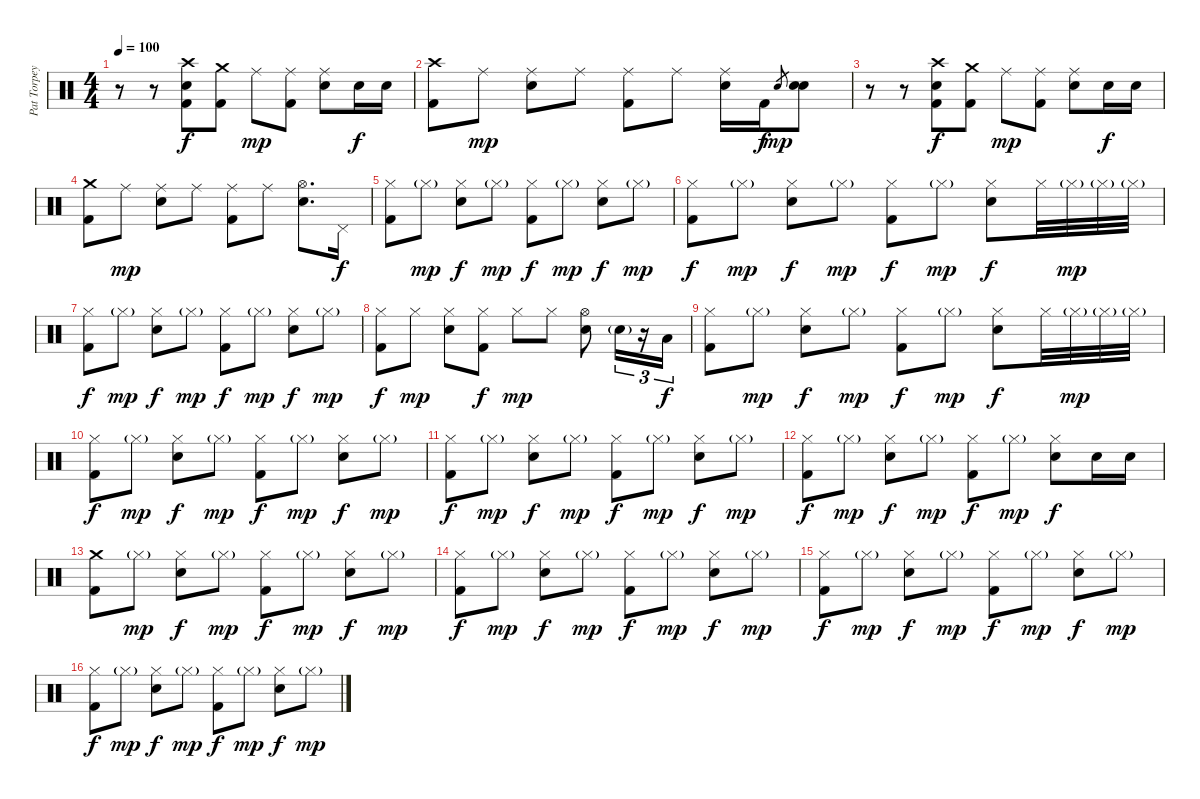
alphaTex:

\track ("Pat Torpey" "Pat Torpey") {instrument percussion}
\staff {score}
\articulation defaults
\ts (4 4)
\tempo 100
\clef neutral
\ks c
r.8{dy mp} r.8 ("Crash high (hit)" "Electric Snare (hit)" "Kick (hit) 2").8{dy f} ("Crash medium (hit)" "Kick (hit) 2").8 "Ride (middle)".8{dy mp} ("Ride (middle)" "Kick (hit) 2").8 ("Ride (middle)" "Electric Snare (hit)").8 "Electric Snare (hit)".16{dy f} "Electric Snare (hit)".16 |
("Crash high (hit)" "Kick (hit) 2").8 "Ride (middle)".8{dy mp} ("Ride (middle)" "Electric Snare (hit)").8 "Ride (middle)".8 ("Ride (middle)" "Kick (hit) 2").8 "Ride (middle)".8 ("Ride (middle)" "Electric Snare (hit)").16 "Kick (hit) 2".16{dy f} "Electric Snare (hit)".8{gr dy mp} ("Electric Snare (hit)" "Electric Snare (hit)").8 |
r.8 r.8 ("Crash high (hit)" "Electric Snare (hit)" "Kick (hit) 2").8{dy f} ("Crash medium (hit)" "Kick (hit) 2").8 "Ride (middle)".8{dy mp} ("Ride (middle)" "Kick (hit) 2").8 ("Ride (middle)" "Electric Snare (hit)").8 "Electric Snare (hit)".16{dy f} "Electric Snare (hit)".16 |
("Crash medium (hit)" "Kick (hit) 2").8 "Ride (middle)".8{dy mp} ("Ride (middle)" "Electric Snare (hit)").8 "Ride (middle)".8 ("Ride (middle)" "Kick (hit) 2").8 "Ride (middle)".8 ("Hi-Hat (open)" "Electric Snare (hit)").8{d} "Pedal Hi-Hat (hit)".16{dy f} |
("Hi-Hat (closed)" "Kick (hit) 2").8 "Hi-Hat (closed)"{g}.8{dy mp} ("Hi-Hat (closed)" "Electric Snare (hit)").8{dy f} "Hi-Hat (closed)"{g}.8{dy mp} ("Hi-Hat (closed)" "Kick (hit) 2").8{dy f} "Hi-Hat (closed)"{g}.8{dy mp} ("Hi-Hat (closed)" "Electric Snare (hit)").8{dy f} "Hi-Hat (closed)"{g}.8{dy mp} |
("Hi-Hat (closed)" "Kick (hit) 2").8{dy f} "Hi-Hat (closed)"{g}.8{dy mp} ("Hi-Hat (closed)" "Electric Snare (hit)").8{dy f} "Hi-Hat (closed)"{g}.8{dy mp} ("Hi-Hat (closed)" "Kick (hit) 2").8{dy f} "Hi-Hat (closed)"{g}.8{dy mp} ("Hi-Hat (closed)" "Electric Snare (hit)").8{dy f} "Hi-Hat (closed)".32 "Hi-Hat (closed)"{g}.32{dy mp} "Hi-Hat (closed)"{g}.32 "Hi-Hat (closed)"{g}.32 |
("Hi-Hat (closed)" "Kick (hit) 2").8{dy f} "Hi-Hat (closed)"{g}.8{dy mp} ("Hi-Hat (closed)" "Electric Snare (hit)").8{dy f} "Hi-Hat (closed)"{g}.8{dy mp} ("Hi-Hat (closed)" "Kick (hit) 2").8{dy f} "Hi-Hat (closed)"{g}.8{dy mp} ("Hi-Hat (closed)" "Electric Snare (hit)").8{dy f} "Hi-Hat (closed)"{g}.8{dy mp} |
("Hi-Hat (closed)" "Kick (hit) 2").8{dy f} "Hi-Hat (closed)".8{dy mp} ("Hi-Hat (closed)" "Electric Snare (hit)").8 ("Hi-Hat (closed)" "Kick (hit) 2").8{dy f} "Hi-Hat (closed)".8{dy mp} "Hi-Hat (closed)".8 ("Hi-Hat (open)" "Electric Snare (hit)").8 "Electric Snare (hit)"{g}.16{tu (3 2)} r.16{tu (3 2)} "Low Tom (hit)".16{tu (3 2) dy f} |
("Hi-Hat (closed)" "Kick (hit) 2").8 "Hi-Hat (closed)"{g}.8{dy mp} ("Hi-Hat (closed)" "Electric Snare (hit)").8{dy f} "Hi-Hat (closed)"{g}.8{dy mp} ("Hi-Hat (closed)" "Kick (hit) 2").8{dy f} "Hi-Hat (closed)"{g}.8{dy mp} ("Hi-Hat (closed)" "Electric Snare (hit)").8{dy f} "Hi-Hat (closed)".32 "Hi-Hat (closed)"{g}.32{dy mp} "Hi-Hat (closed)"{g}.32 "Hi-Hat (closed)"{g}.32 |
("Hi-Hat (closed)" "Kick (hit) 2").8{dy f} "Hi-Hat (closed)"{g}.8{dy mp} ("Hi-Hat (closed)" "Electric Snare (hit)").8{dy f} "Hi-Hat (closed)"{g}.8{dy mp} ("Hi-Hat (closed)" "Kick (hit) 2").8{dy f} "Hi-Hat (closed)"{g}.8{dy mp} ("Hi-Hat (closed)" "Electric Snare (hit)").8{dy f} "Hi-Hat (closed)"{g}.8{dy mp} |
("Hi-Hat (closed)" "Kick (hit) 2").8{dy f} "Hi-Hat (closed)"{g}.8{dy mp} ("Hi-Hat (closed)" "Electric Snare (hit)").8{dy f} "Hi-Hat (closed)"{g}.8{dy mp} ("Hi-Hat (closed)" "Kick (hit) 2").8{dy f} "Hi-Hat (closed)"{g}.8{dy mp} ("Hi-Hat (closed)" "Electric Snare (hit)").8{dy f} "Hi-Hat (closed)"{g}.8{dy mp} |
("Hi-Hat (closed)" "Kick (hit) 2").8{dy f} "Hi-Hat (closed)"{g}.8{dy mp} ("Hi-Hat (closed)" "Electric Snare (hit)").8{dy f} "Hi-Hat (closed)"{g}.8{dy mp} ("Hi-Hat (closed)" "Kick (hit) 2").8{dy f} "Hi-Hat (closed)"{g}.8{dy mp} ("Hi-Hat (closed)" "Electric Snare (hit)").8{dy f} "Electric Snare (hit)".16 "Electric Snare (hit)".16 |
("Crash medium (hit)" "Kick (hit) 2").8 "Hi-Hat (closed)"{g}.8{dy mp} ("Hi-Hat (closed)" "Electric Snare (hit)").8{dy f} "Hi-Hat (closed)"{g}.8{dy mp} ("Hi-Hat (closed)" "Kick (hit) 2").8{dy f} "Hi-Hat (closed)"{g}.8{dy mp} ("Hi-Hat (closed)" "Electric Snare (hit)").8{dy f} "Hi-Hat (closed)"{g}.8{dy mp} |
("Hi-Hat (closed)" "Kick (hit) 2").8{dy f} "Hi-Hat (closed)"{g}.8{dy mp} ("Hi-Hat (closed)" "Electric Snare (hit)").8{dy f} "Hi-Hat (closed)"{g}.8{dy mp} ("Hi-Hat (closed)" "Kick (hit) 2").8{dy f} "Hi-Hat (closed)"{g}.8{dy mp} ("Hi-Hat (closed)" "Electric Snare (hit)").8{dy f} "Hi-Hat (closed)"{g}.8{dy mp} |
("Hi-Hat (closed)" "Kick (hit) 2").8{dy f} "Hi-Hat (closed)"{g}.8{dy mp} ("Hi-Hat (closed)" "Electric Snare (hit)").8{dy f} "Hi-Hat (closed)"{g}.8{dy mp} ("Hi-Hat (closed)" "Kick (hit) 2").8{dy f} "Hi-Hat (closed)"{g}.8{dy mp} ("Hi-Hat (closed)" "Electric Snare (hit)").8{dy f} "Hi-Hat (closed)"{g}.8{dy mp} |
("Hi-Hat (closed)" "Kick (hit) 2").8{dy f} "Hi-Hat (closed)"{g}.8{dy mp} ("Hi-Hat (closed)" "Electric Snare (hit)").8{dy f} "Hi-Hat (closed)"{g}.8{dy mp} ("Hi-Hat (closed)" "Kick (hit) 2").8{dy f} "Hi-Hat (closed)"{g}.8{dy mp} ("Hi-Hat (closed)" "Electric Snare (hit)").8{dy f} "Hi-Hat (closed)"{g}.8{dy mp}
